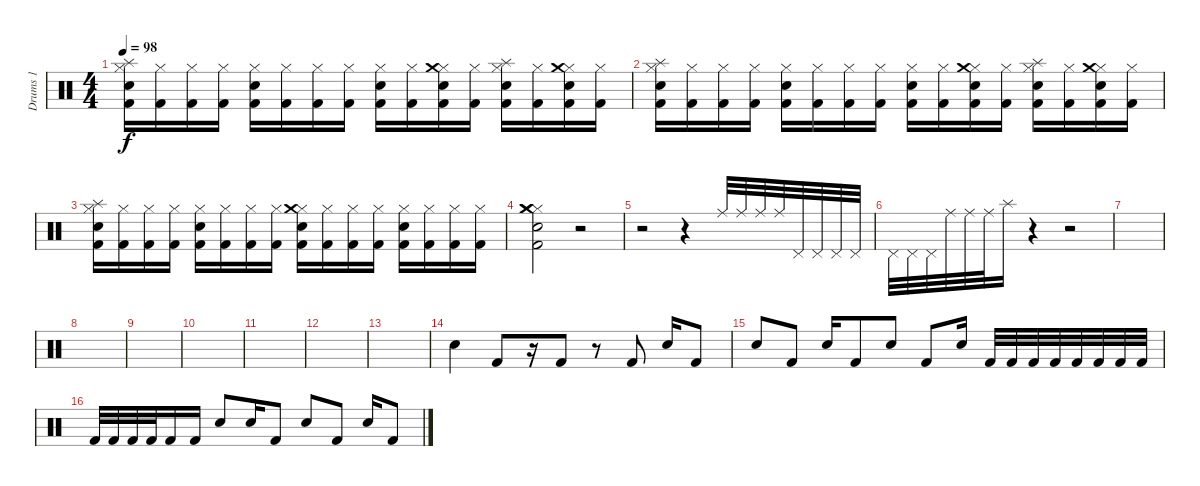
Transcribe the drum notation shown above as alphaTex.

\track ("Drums 1" "Drums 1") {instrument percussion}
\staff {score}
\articulation defaults
\ts (4 4)
\tempo 98
\clef neutral
\ks c
("Hi-Hat (closed)" "Snare (hit) 2" "Kick (hit) 2" "Splash (hit)").16{dy f} ("Hi-Hat (closed)" "Kick (hit) 2").16 ("Hi-Hat (closed)" "Kick (hit) 2").16 ("Hi-Hat (closed)" "Kick (hit) 2").16 ("Hi-Hat (closed)" "Snare (hit) 2" "Kick (hit) 2").16 ("Hi-Hat (closed)" "Kick (hit) 2").16 ("Hi-Hat (closed)" "Kick (hit) 2").16 ("Hi-Hat (closed)" "Kick (hit) 2").16 ("Hi-Hat (closed)" "Snare (hit) 2" "Kick (hit) 2").16 ("Hi-Hat (closed)" "Kick (hit) 2").16 ("Hi-Hat (closed)" "Snare (hit) 2" "Kick (hit) 2" "Crash medium (hit)").16 ("Hi-Hat (closed)" "Kick (hit) 2").16 ("Hi-Hat (closed)" "Snare (hit) 2" "Kick (hit) 2" "Splash (hit)").16 ("Hi-Hat (closed)" "Kick (hit) 2").16 ("Hi-Hat (closed)" "Snare (hit) 2" "Kick (hit) 2" "Crash medium (hit)").16 ("Hi-Hat (closed)" "Kick (hit) 2").16 |
("Hi-Hat (closed)" "Snare (hit) 2" "Kick (hit) 2" "Splash (hit)").16 ("Hi-Hat (closed)" "Kick (hit) 2").16 ("Hi-Hat (closed)" "Kick (hit) 2").16 ("Hi-Hat (closed)" "Kick (hit) 2").16 ("Hi-Hat (closed)" "Snare (hit) 2" "Kick (hit) 2").16 ("Hi-Hat (closed)" "Kick (hit) 2").16 ("Hi-Hat (closed)" "Kick (hit) 2").16 ("Hi-Hat (closed)" "Kick (hit) 2").16 ("Hi-Hat (closed)" "Snare (hit) 2" "Kick (hit) 2").16 ("Hi-Hat (closed)" "Kick (hit) 2").16 ("Hi-Hat (closed)" "Snare (hit) 2" "Kick (hit) 2" "Crash medium (hit)").16 ("Hi-Hat (closed)" "Kick (hit) 2").16 ("Hi-Hat (closed)" "Snare (hit) 2" "Kick (hit) 2" "Splash (hit)").16 ("Hi-Hat (closed)" "Kick (hit) 2").16 ("Hi-Hat (closed)" "Snare (hit) 2" "Kick (hit) 2" "Crash medium (hit)").16 ("Hi-Hat (closed)" "Kick (hit) 2").16 |
("Hi-Hat (closed)" "Snare (hit) 2" "Kick (hit) 2" "Splash (hit)").16 ("Hi-Hat (closed)" "Kick (hit) 2").16 ("Hi-Hat (closed)" "Kick (hit) 2").16 ("Hi-Hat (closed)" "Kick (hit) 2").16 ("Hi-Hat (closed)" "Snare (hit) 2" "Kick (hit) 2").16 ("Hi-Hat (closed)" "Kick (hit) 2").16 ("Hi-Hat (closed)" "Kick (hit) 2").16 ("Hi-Hat (closed)" "Kick (hit) 2").16 ("Hi-Hat (closed)" "Snare (hit) 2" "Kick (hit) 2" "Crash medium (hit)").16 ("Hi-Hat (closed)" "Kick (hit) 2").16 ("Hi-Hat (closed)" "Kick (hit) 2").16 ("Hi-Hat (closed)" "Kick (hit) 2").16 ("Hi-Hat (closed)" "Snare (hit) 2" "Kick (hit) 2").16 ("Hi-Hat (closed)" "Kick (hit) 2").16 ("Hi-Hat (closed)" "Kick (hit) 2").16 ("Hi-Hat (closed)" "Kick (hit) 2").16 |
("Hi-Hat (closed)" "Kick (hit) 2" "Snare (hit) 2" "Crash medium (hit)" "Crash medium (hit)").2 r.2 |
r.2 r.4 "Ride (middle)".32 "Ride (middle)".32 "Ride (middle)".32 "Ride (middle)".32 "Pedal Hi-Hat (hit)".32 "Pedal Hi-Hat (hit)".32 "Pedal Hi-Hat (hit)".32 "Pedal Hi-Hat (hit)".32 |
"Pedal Hi-Hat (hit)".32 "Pedal Hi-Hat (hit)".32 "Pedal Hi-Hat (hit)".32 "Ride (middle)".32 "Ride (middle)".32 "Ride (middle)".32 "Splash (hit)".16 r.4 r.2 |
|
|
|
|
|
|
|
"Snare (hit)"{x}.4 "Kick (hit) 2".8 r.16 "Kick (hit) 2".8 r.8 "Kick (hit) 2".8 "Snare (hit) 2".16 "Kick (hit) 2".8 |
"Snare (hit)"{x}.8 "Kick (hit) 2".8 "Snare (hit)"{x}.16 "Kick (hit) 2".8 "Snare (hit)"{x}.8 "Kick (hit) 2".8 "Snare (hit) 2".16 "Kick (hit) 2".32 "Kick (hit) 2".32 "Kick (hit) 2".32 "Kick (hit) 2".32 "Kick (hit) 2".32 "Kick (hit) 2".32 "Kick (hit) 2".32 "Kick (hit) 2".32 |
"Kick (hit) 2".32 "Kick (hit) 2".32 "Kick (hit) 2".32 "Kick (hit) 2".32 "Kick (hit) 2".16 "Kick (hit) 2".16 "Snare (hit) 2".8 "Snare (hit) 2"{x}.16 "Kick (hit) 2".8 "Snare (hit)"{x}.8 "Kick (hit) 2".8 "Snare (hit)"{x}.16 "Kick (hit) 2".8
